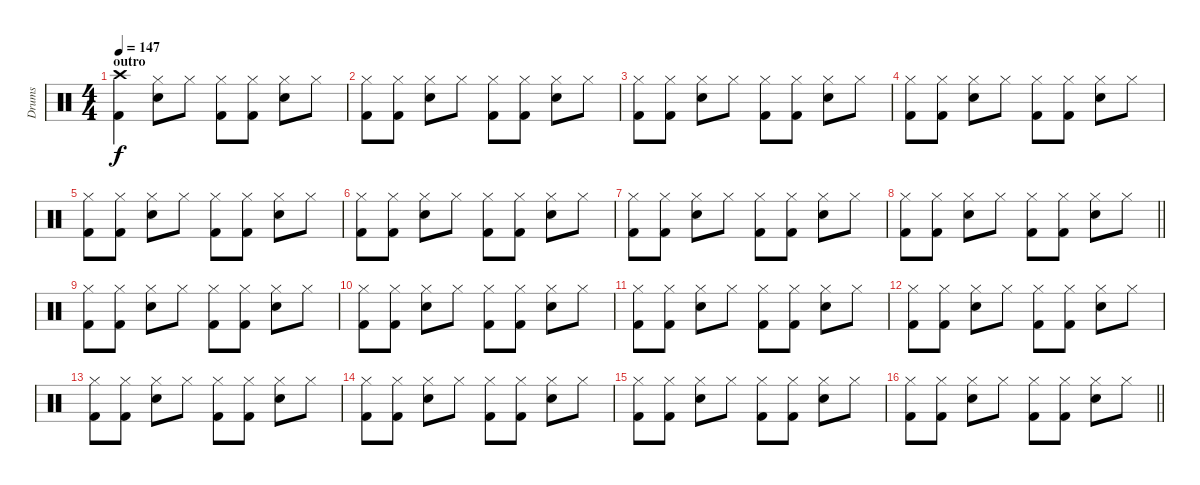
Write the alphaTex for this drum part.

\track ("Drums" "Drums") {instrument percussion}
\staff {score}
\articulation defaults
\ts (4 4)
\section ("" "outro")
\tempo 147
\clef neutral
\ks c
("Crash high (hit)" "Kick (hit) 2").4{dy f} ("Hi-Hat (closed)" "Snare (hit) 2").8 "Hi-Hat (closed)".8 ("Hi-Hat (closed)" "Kick (hit) 2").8 ("Hi-Hat (closed)" "Kick (hit) 2").8 ("Hi-Hat (closed)" "Snare (hit) 2").8 "Hi-Hat (closed)".8 |
("Hi-Hat (closed)" "Kick (hit) 2").8 ("Hi-Hat (closed)" "Kick (hit) 2").8 ("Hi-Hat (closed)" "Snare (hit) 2").8 "Hi-Hat (closed)".8 ("Hi-Hat (closed)" "Kick (hit) 2").8 ("Hi-Hat (closed)" "Kick (hit) 2").8 ("Hi-Hat (closed)" "Snare (hit) 2").8 "Hi-Hat (closed)".8 |
("Hi-Hat (closed)" "Kick (hit) 2").8 ("Hi-Hat (closed)" "Kick (hit) 2").8 ("Hi-Hat (closed)" "Snare (hit) 2").8 "Hi-Hat (closed)".8 ("Hi-Hat (closed)" "Kick (hit) 2").8 ("Hi-Hat (closed)" "Kick (hit) 2").8 ("Hi-Hat (closed)" "Snare (hit) 2").8 "Hi-Hat (closed)".8 |
("Hi-Hat (closed)" "Kick (hit) 2").8 ("Hi-Hat (closed)" "Kick (hit) 2").8 ("Hi-Hat (closed)" "Snare (hit) 2").8 "Hi-Hat (closed)".8 ("Hi-Hat (closed)" "Kick (hit) 2").8 ("Hi-Hat (closed)" "Kick (hit) 2").8 ("Hi-Hat (closed)" "Snare (hit) 2").8 "Hi-Hat (closed)".8 |
("Hi-Hat (closed)" "Kick (hit) 2").8 ("Hi-Hat (closed)" "Kick (hit) 2").8 ("Hi-Hat (closed)" "Snare (hit) 2").8 "Hi-Hat (closed)".8 ("Hi-Hat (closed)" "Kick (hit) 2").8 ("Hi-Hat (closed)" "Kick (hit) 2").8 ("Hi-Hat (closed)" "Snare (hit) 2").8 "Hi-Hat (closed)".8 |
("Hi-Hat (closed)" "Kick (hit) 2").8 ("Hi-Hat (closed)" "Kick (hit) 2").8 ("Hi-Hat (closed)" "Snare (hit) 2").8 "Hi-Hat (closed)".8 ("Hi-Hat (closed)" "Kick (hit) 2").8 ("Hi-Hat (closed)" "Kick (hit) 2").8 ("Hi-Hat (closed)" "Snare (hit) 2").8 "Hi-Hat (closed)".8 |
("Hi-Hat (closed)" "Kick (hit) 2").8 ("Hi-Hat (closed)" "Kick (hit) 2").8 ("Hi-Hat (closed)" "Snare (hit) 2").8 "Hi-Hat (closed)".8 ("Hi-Hat (closed)" "Kick (hit) 2").8 ("Hi-Hat (closed)" "Kick (hit) 2").8 ("Hi-Hat (closed)" "Snare (hit) 2").8 "Hi-Hat (closed)".8 |
\barLineRight lightlight
("Hi-Hat (closed)" "Kick (hit) 2").8 ("Hi-Hat (closed)" "Kick (hit) 2").8 ("Hi-Hat (closed)" "Snare (hit) 2").8 "Hi-Hat (closed)".8 ("Hi-Hat (closed)" "Kick (hit) 2").8 ("Hi-Hat (closed)" "Kick (hit) 2").8 ("Hi-Hat (closed)" "Snare (hit) 2").8 "Hi-Hat (closed)".8 |
("Hi-Hat (closed)" "Kick (hit) 2").8 ("Hi-Hat (closed)" "Kick (hit) 2").8 ("Hi-Hat (closed)" "Snare (hit) 2").8 "Hi-Hat (closed)".8 ("Hi-Hat (closed)" "Kick (hit) 2").8 ("Hi-Hat (closed)" "Kick (hit) 2").8 ("Hi-Hat (closed)" "Snare (hit) 2").8 "Hi-Hat (closed)".8 |
("Hi-Hat (closed)" "Kick (hit) 2").8 ("Hi-Hat (closed)" "Kick (hit) 2").8 ("Hi-Hat (closed)" "Snare (hit) 2").8 "Hi-Hat (closed)".8 ("Hi-Hat (closed)" "Kick (hit) 2").8 ("Hi-Hat (closed)" "Kick (hit) 2").8 ("Hi-Hat (closed)" "Snare (hit) 2").8 "Hi-Hat (closed)".8 |
("Hi-Hat (closed)" "Kick (hit) 2").8 ("Hi-Hat (closed)" "Kick (hit) 2").8 ("Hi-Hat (closed)" "Snare (hit) 2").8 "Hi-Hat (closed)".8 ("Hi-Hat (closed)" "Kick (hit) 2").8 ("Hi-Hat (closed)" "Kick (hit) 2").8 ("Hi-Hat (closed)" "Snare (hit) 2").8 "Hi-Hat (closed)".8 |
("Hi-Hat (closed)" "Kick (hit) 2").8 ("Hi-Hat (closed)" "Kick (hit) 2").8 ("Hi-Hat (closed)" "Snare (hit) 2").8 "Hi-Hat (closed)".8 ("Hi-Hat (closed)" "Kick (hit) 2").8 ("Hi-Hat (closed)" "Kick (hit) 2").8 ("Hi-Hat (closed)" "Snare (hit) 2").8 "Hi-Hat (closed)".8 |
("Hi-Hat (closed)" "Kick (hit) 2").8 ("Hi-Hat (closed)" "Kick (hit) 2").8 ("Hi-Hat (closed)" "Snare (hit) 2").8 "Hi-Hat (closed)".8 ("Hi-Hat (closed)" "Kick (hit) 2").8 ("Hi-Hat (closed)" "Kick (hit) 2").8 ("Hi-Hat (closed)" "Snare (hit) 2").8 "Hi-Hat (closed)".8 |
("Hi-Hat (closed)" "Kick (hit) 2").8 ("Hi-Hat (closed)" "Kick (hit) 2").8 ("Hi-Hat (closed)" "Snare (hit) 2").8 "Hi-Hat (closed)".8 ("Hi-Hat (closed)" "Kick (hit) 2").8 ("Hi-Hat (closed)" "Kick (hit) 2").8 ("Hi-Hat (closed)" "Snare (hit) 2").8 "Hi-Hat (closed)".8 |
("Hi-Hat (closed)" "Kick (hit) 2").8 ("Hi-Hat (closed)" "Kick (hit) 2").8 ("Hi-Hat (closed)" "Snare (hit) 2").8 "Hi-Hat (closed)".8 ("Hi-Hat (closed)" "Kick (hit) 2").8 ("Hi-Hat (closed)" "Kick (hit) 2").8 ("Hi-Hat (closed)" "Snare (hit) 2").8 "Hi-Hat (closed)".8 |
\barLineRight lightlight
("Hi-Hat (closed)" "Kick (hit) 2").8 ("Hi-Hat (closed)" "Kick (hit) 2").8 ("Hi-Hat (closed)" "Snare (hit) 2").8 "Hi-Hat (closed)".8 ("Hi-Hat (closed)" "Kick (hit) 2").8 ("Hi-Hat (closed)" "Kick (hit) 2").8 ("Hi-Hat (closed)" "Snare (hit) 2").8 "Hi-Hat (closed)".8
